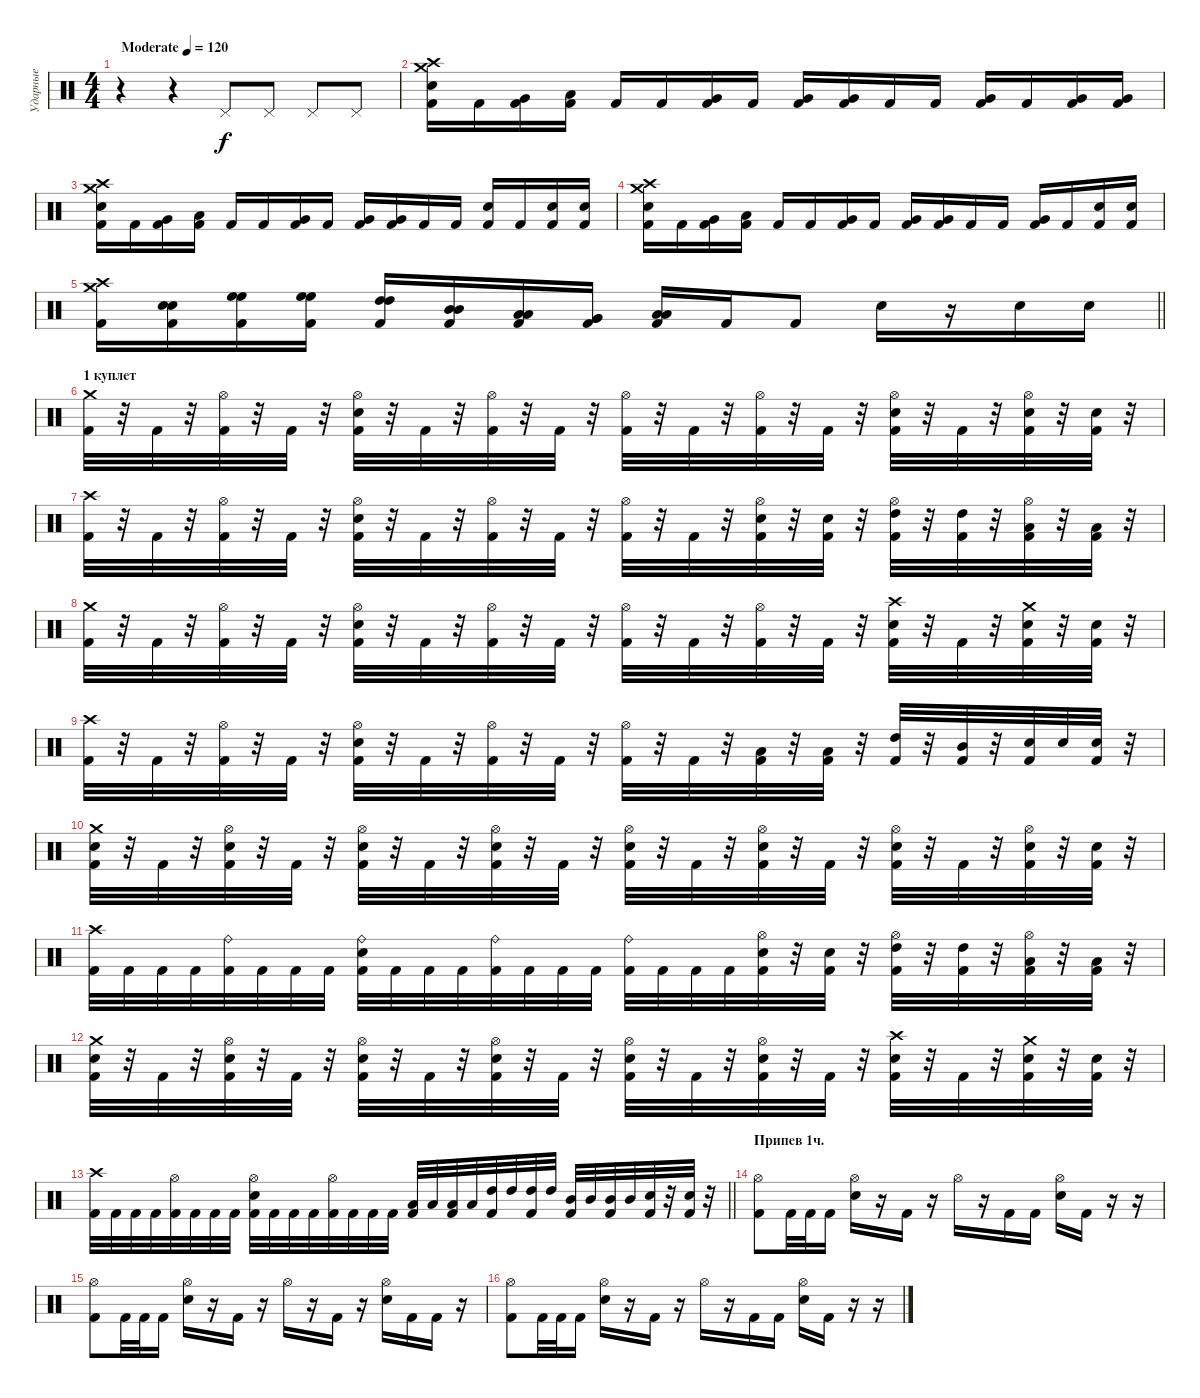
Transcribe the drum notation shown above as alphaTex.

\track ("Ударные" "Ударные") {instrument percussion}
\staff {score}
\articulation defaults
\ts (4 4)
\tempo (120 "Moderate")
\clef neutral
\ks c
r.4{dy f} r.4 "Pedal Hi-Hat (hit)".8 "Pedal Hi-Hat (hit)".8 "Pedal Hi-Hat (hit)".8 "Pedal Hi-Hat (hit)".8 |
("Crash medium (hit)" "Crash high (hit)" "Snare (hit) 2" "Kick (hit) 2").16 "Kick (hit) 2".16 ("Very Low Tom (hit)" "Kick (hit) 2").16 ("Low Tom (hit)" "Kick (hit) 2").16 "Kick (hit) 2".16 "Kick (hit) 2".16 ("Very Low Tom (hit)" "Kick (hit) 2").16 "Kick (hit) 2".16 ("Very Low Tom (hit)" "Kick (hit) 2").16 ("Very Low Tom (hit)" "Kick (hit) 2").16 "Kick (hit) 2".16 "Kick (hit) 2".16 ("Very Low Tom (hit)" "Kick (hit) 2").16 "Kick (hit) 2".16 ("Very Low Tom (hit)" "Kick (hit) 2").16 ("Very Low Tom (hit)" "Kick (hit) 2").16 |
("Crash medium (hit)" "Crash high (hit)" "Snare (hit) 2" "Kick (hit) 2").16 "Kick (hit) 2".16 ("Very Low Tom (hit)" "Kick (hit) 2").16 ("Low Tom (hit)" "Kick (hit) 2").16 "Kick (hit) 2".16 "Kick (hit) 2".16 ("Very Low Tom (hit)" "Kick (hit) 2").16 "Kick (hit) 2".16 ("Very Low Tom (hit)" "Kick (hit) 2").16 ("Very Low Tom (hit)" "Kick (hit) 2").16 "Kick (hit) 2".16 "Kick (hit) 2".16 ("Snare (hit) 2" "Kick (hit) 2").16 "Kick (hit) 2".16 ("Snare (hit) 2" "Kick (hit) 2").16 ("Snare (hit) 2" "Kick (hit) 2").16 |
("Crash medium (hit)" "Crash high (hit)" "Snare (hit) 2" "Kick (hit) 2").16 "Kick (hit) 2".16 ("Very Low Tom (hit)" "Kick (hit) 2").16 ("Low Tom (hit)" "Kick (hit) 2").16 "Kick (hit) 2".16 "Kick (hit) 2".16 ("Very Low Tom (hit)" "Kick (hit) 2").16 "Kick (hit) 2".16 ("Very Low Tom (hit)" "Kick (hit) 2").16 ("Very Low Tom (hit)" "Kick (hit) 2").16 "Kick (hit) 2".16 "Kick (hit) 2".16 ("Very Low Tom (hit)" "Kick (hit) 2").16 "Kick (hit) 2".16 ("Snare (hit) 2" "Kick (hit) 2").16 ("Snare (hit) 2" "Kick (hit) 2").16 |
\barLineRight lightlight
("Crash medium (hit)" "Crash high (hit)" "Kick (hit) 2").16 ("Snare (hit) 2" "Snare (hit) 2" "Kick (hit) 2").16 ("High Floor Tom (hit)" "High Floor Tom (hit)" "Kick (hit) 2").16 ("High Floor Tom (hit)" "High Floor Tom (hit)" "Kick (hit) 2").16 ("High Tom (hit)" "High Tom (hit)" "Kick (hit) 2").16 ("Mid Tom (hit)" "Mid Tom (hit)" "Kick (hit) 2").16 ("Low Tom (hit)" "Low Tom (hit)" "Kick (hit) 2").16 ("Very Low Tom (hit)" "Very Low Tom (hit)" "Kick (hit) 2").16 ("Low Floor Tom (hit)" "Low Floor Tom (hit)" "Kick (hit) 2").16 "Kick (hit) 2".16 "Kick (hit) 2".8 "Snare (hit) 2".16 r.16 "Snare (hit) 2".16 "Snare (hit) 2".16 |
\section ("" "1 куплет")
("Crash medium (hit)" "Kick (hit) 2").32 r.32 "Kick (hit) 2".32 r.32 ("Hi-Hat (open)" "Kick (hit) 2").32 r.32 "Kick (hit) 2".32 r.32 ("Hi-Hat (open)" "Snare (hit) 2" "Kick (hit) 2").32 r.32 "Kick (hit) 2".32 r.32 ("Hi-Hat (open)" "Kick (hit) 2").32 r.32 "Kick (hit) 2".32 r.32 ("Hi-Hat (open)" "Kick (hit) 2").32 r.32 "Kick (hit) 2".32 r.32 ("Hi-Hat (open)" "Kick (hit) 2").32 r.32 "Kick (hit) 2".32 r.32 ("Hi-Hat (open)" "Snare (hit) 2" "Kick (hit) 2").32 r.32 "Kick (hit) 2".32 r.32 ("Hi-Hat (open)" "Snare (hit) 2" "Kick (hit) 2").32 r.32 ("Snare (hit) 2" "Kick (hit) 2").32 r.32 |
("Crash high (hit)" "Kick (hit) 2").32 r.32 "Kick (hit) 2".32 r.32 ("Hi-Hat (open)" "Kick (hit) 2").32 r.32 "Kick (hit) 2".32 r.32 ("Hi-Hat (open)" "Snare (hit) 2" "Kick (hit) 2").32 r.32 "Kick (hit) 2".32 r.32 ("Hi-Hat (open)" "Kick (hit) 2").32 r.32 "Kick (hit) 2".32 r.32 ("Hi-Hat (open)" "Kick (hit) 2").32 r.32 "Kick (hit) 2".32 r.32 ("Hi-Hat (open)" "Snare (hit) 2" "Kick (hit) 2").32 r.32 ("Snare (hit) 2" "Kick (hit) 2").32 r.32 ("Hi-Hat (open)" "High Tom (hit)" "Kick (hit) 2").32 r.32 ("High Tom (hit)" "Kick (hit) 2").32 r.32 ("Hi-Hat (open)" "Low Tom (hit)" "Kick (hit) 2").32 r.32 ("Low Tom (hit)" "Kick (hit) 2").32 r.32 |
("Crash medium (hit)" "Kick (hit) 2").32 r.32 "Kick (hit) 2".32 r.32 ("Hi-Hat (open)" "Kick (hit) 2").32 r.32 "Kick (hit) 2".32 r.32 ("Hi-Hat (open)" "Snare (hit) 2" "Kick (hit) 2").32 r.32 "Kick (hit) 2".32 r.32 ("Hi-Hat (open)" "Kick (hit) 2").32 r.32 "Kick (hit) 2".32 r.32 ("Hi-Hat (open)" "Kick (hit) 2").32 r.32 "Kick (hit) 2".32 r.32 ("Hi-Hat (open)" "Kick (hit) 2").32 r.32 "Kick (hit) 2".32 r.32 ("Crash high (hit)" "Snare (hit) 2" "Kick (hit) 2").32 r.32 "Kick (hit) 2".32 r.32 ("Crash medium (hit)" "Snare (hit) 2" "Kick (hit) 2").32 r.32 ("Snare (hit) 2" "Kick (hit) 2").32 r.32 |
("Crash high (hit)" "Kick (hit) 2").32 r.32 "Kick (hit) 2".32 r.32 ("Hi-Hat (open)" "Kick (hit) 2").32 r.32 "Kick (hit) 2".32 r.32 ("Hi-Hat (open)" "Snare (hit) 2" "Kick (hit) 2").32 r.32 "Kick (hit) 2".32 r.32 ("Hi-Hat (open)" "Kick (hit) 2").32 r.32 "Kick (hit) 2".32 r.32 ("Hi-Hat (open)" "Kick (hit) 2").32 r.32 "Kick (hit) 2".32 r.32 ("Low Tom (hit)" "Kick (hit) 2").32 r.32 ("Low Tom (hit)" "Kick (hit) 2").32 r.32 ("High Tom (hit)" "Kick (hit) 2").32 r.32 ("Mid Tom (hit)" "Kick (hit) 2").32 r.32 ("Snare (hit) 2" "Kick (hit) 2").32 "Snare (hit) 2".32 ("Snare (hit) 2" "Kick (hit) 2").32 r.32 |
("Crash medium (hit)" "Snare (hit) 2" "Kick (hit) 2").32 r.32 "Kick (hit) 2".32 r.32 ("Hi-Hat (open)" "Snare (hit) 2" "Kick (hit) 2").32 r.32 "Kick (hit) 2".32 r.32 ("Hi-Hat (open)" "Snare (hit) 2" "Kick (hit) 2").32 r.32 "Kick (hit) 2".32 r.32 ("Hi-Hat (open)" "Snare (hit) 2" "Kick (hit) 2").32 r.32 "Kick (hit) 2".32 r.32 ("Hi-Hat (open)" "Snare (hit) 2" "Kick (hit) 2").32 r.32 "Kick (hit) 2".32 r.32 ("Hi-Hat (open)" "Snare (hit) 2" "Kick (hit) 2").32 r.32 "Kick (hit) 2".32 r.32 ("Hi-Hat (open)" "Snare (hit) 2" "Kick (hit) 2").32 r.32 "Kick (hit) 2".32 r.32 ("Hi-Hat (open)" "Snare (hit) 2" "Kick (hit) 2").32 r.32 ("Snare (hit) 2" "Kick (hit) 2").32 r.32 |
("Crash high (hit)" "Kick (hit) 2").32 "Kick (hit) 2".32 "Kick (hit) 2".32 "Kick (hit) 2".32 ("Ride (bell)" "Kick (hit) 2").32 "Kick (hit) 2".32 "Kick (hit) 2".32 "Kick (hit) 2".32 ("Ride (bell)" "Snare (hit) 2" "Kick (hit) 2").32 "Kick (hit) 2".32 "Kick (hit) 2".32 "Kick (hit) 2".32 ("Ride (bell)" "Kick (hit) 2").32 "Kick (hit) 2".32 "Kick (hit) 2".32 "Kick (hit) 2".32 ("Ride (bell)" "Kick (hit) 2").32 "Kick (hit) 2".32 "Kick (hit) 2".32 "Kick (hit) 2".32 ("Hi-Hat (open)" "Snare (hit) 2" "Kick (hit) 2").32 r.32 ("Snare (hit) 2" "Kick (hit) 2").32 r.32 ("Hi-Hat (open)" "High Tom (hit)" "Kick (hit) 2").32 r.32 ("High Tom (hit)" "Kick (hit) 2").32 r.32 ("Hi-Hat (open)" "Low Tom (hit)" "Kick (hit) 2").32 r.32 ("Low Tom (hit)" "Kick (hit) 2").32 r.32 |
("Crash medium (hit)" "Snare (hit) 2" "Kick (hit) 2").32 r.32 "Kick (hit) 2".32 r.32 ("Hi-Hat (open)" "Snare (hit) 2" "Kick (hit) 2").32 r.32 "Kick (hit) 2".32 r.32 ("Hi-Hat (open)" "Snare (hit) 2" "Kick (hit) 2").32 r.32 "Kick (hit) 2".32 r.32 ("Hi-Hat (open)" "Snare (hit) 2" "Kick (hit) 2").32 r.32 "Kick (hit) 2".32 r.32 ("Hi-Hat (open)" "Snare (hit) 2" "Kick (hit) 2").32 r.32 "Kick (hit) 2".32 r.32 ("Hi-Hat (open)" "Snare (hit) 2" "Kick (hit) 2").32 r.32 "Kick (hit) 2".32 r.32 ("Crash high (hit)" "Snare (hit) 2" "Kick (hit) 2").32 r.32 "Kick (hit) 2".32 r.32 ("Crash medium (hit)" "Snare (hit) 2" "Kick (hit) 2").32 r.32 ("Snare (hit) 2" "Kick (hit) 2").32 r.32 |
\barLineRight lightlight
("Crash high (hit)" "Kick (hit) 2").32 "Kick (hit) 2".32 "Kick (hit) 2".32 "Kick (hit) 2".32 ("Hi-Hat (open)" "Kick (hit) 2").32 "Kick (hit) 2".32 "Kick (hit) 2".32 "Kick (hit) 2".32 ("Hi-Hat (open)" "Snare (hit) 2" "Kick (hit) 2").32 "Kick (hit) 2".32 "Kick (hit) 2".32 "Kick (hit) 2".32 ("Hi-Hat (open)" "Kick (hit) 2").32 "Kick (hit) 2".32 "Kick (hit) 2".32 "Kick (hit) 2".32 ("Low Tom (hit)" "Kick (hit) 2").32 "Low Tom (hit)".32 ("Low Tom (hit)" "Kick (hit) 2").32 "Low Tom (hit)".32 ("High Tom (hit)" "Kick (hit) 2").32 "High Tom (hit)".32 ("High Tom (hit)" "Kick (hit) 2").32 "High Tom (hit)".32 ("Mid Tom (hit)" "Kick (hit) 2").32 "Mid Tom (hit)".32 ("Mid Tom (hit)" "Kick (hit) 2").32 "Mid Tom (hit)".32 ("Snare (hit) 2" "Kick (hit) 2").32 r.32 ("Snare (hit) 2" "Kick (hit) 2").32 r.32 |
\section ("" "Припев 1ч.")
("Hi-Hat (open)" "Kick (hit) 2").8 "Kick (hit) 2".32 "Kick (hit) 2".32 "Kick (hit) 2".16 ("Hi-Hat (open)" "Snare (hit) 2").16 r.16 "Kick (hit) 2".16 r.16 "Hi-Hat (open)".16 r.16 "Kick (hit) 2".16 "Kick (hit) 2".16 ("Hi-Hat (open)" "Snare (hit) 2").16 "Kick (hit) 2".16 r.16 r.16 |
("Hi-Hat (open)" "Kick (hit) 2").8 "Kick (hit) 2".32 "Kick (hit) 2".32 "Kick (hit) 2".16 ("Hi-Hat (open)" "Snare (hit) 2").16 r.16 "Kick (hit) 2".16 r.16 "Hi-Hat (open)".16 r.16 "Kick (hit) 2".16 r.16 ("Hi-Hat (open)" "Snare (hit) 2").16 "Kick (hit) 2".16 "Kick (hit) 2".16 r.16 |
("Hi-Hat (open)" "Kick (hit) 2").8 "Kick (hit) 2".32 "Kick (hit) 2".32 "Kick (hit) 2".16 ("Hi-Hat (open)" "Snare (hit) 2").16 r.16 "Kick (hit) 2".16 r.16 "Hi-Hat (open)".16 r.16 "Kick (hit) 2".16 "Kick (hit) 2".16 ("Hi-Hat (open)" "Snare (hit) 2").16 "Kick (hit) 2".16 r.16 r.16
